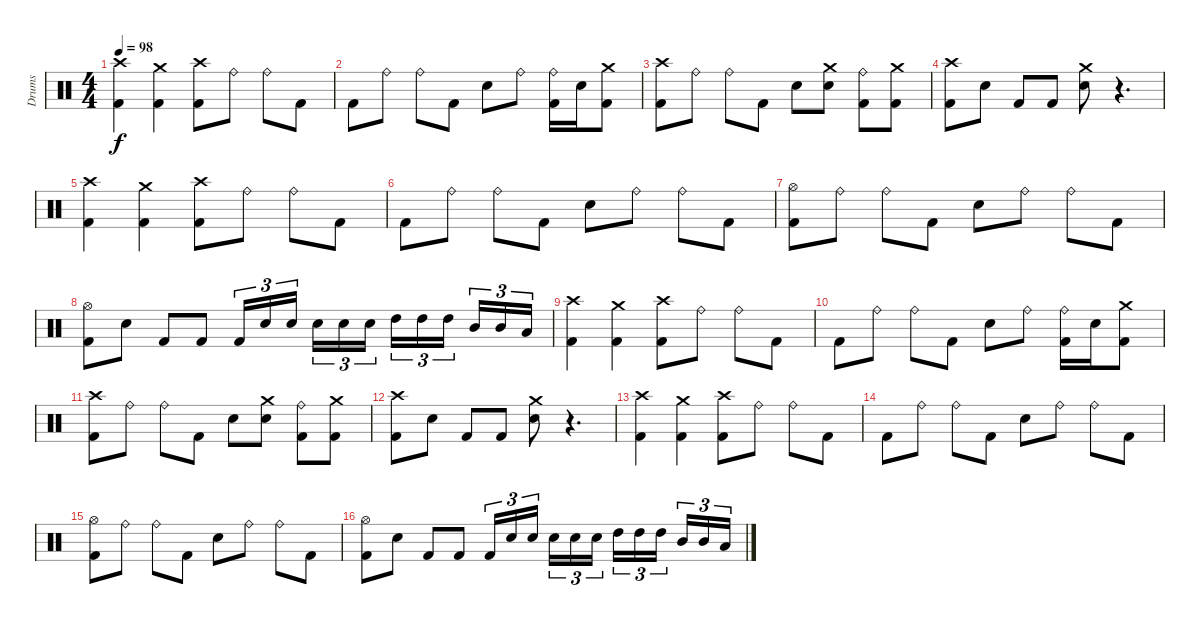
\track ("Drums" "Drums") {instrument percussion}
\staff {score}
\articulation defaults
\ts (4 4)
\tempo 98
\clef neutral
\ks c
("Kick (hit) 2" "Crash high (hit)").4{dy f} ("Kick (hit) 2" "Crash medium (hit)").4 ("Kick (hit) 2" "Crash high (hit)").8 "Ride (bell)".8 "Ride (bell)".8 "Kick (hit) 2".8 |
"Kick (hit) 2".8 "Ride (bell)".8 "Ride (bell)".8 "Kick (hit) 2".8 "Snare (hit) 2".8 "Ride (bell)".8 ("Kick (hit) 2" "Ride (bell)").16 "Snare (hit) 2".16 ("Kick (hit) 2" "Crash medium (hit)").8 |
("Kick (hit) 2" "Crash high (hit)").8 "Ride (bell)".8 "Ride (bell)".8 "Kick (hit) 2".8 "Snare (hit) 2".8 ("Snare (hit) 2" "Crash medium (hit)").8 ("Kick (hit) 2" "Ride (bell)").8 ("Kick (hit) 2" "Crash medium (hit)").8 |
("Kick (hit) 2" "Crash high (hit)").8 "Snare (hit) 2".8 "Kick (hit) 2".8 "Kick (hit) 2".8 ("Snare (hit) 2" "Crash medium (hit)").8 r.4{d} |
("Kick (hit) 2" "Crash high (hit)").4 ("Kick (hit) 2" "Crash medium (hit)").4 ("Kick (hit) 2" "Crash high (hit)").8 "Ride (bell)".8 "Ride (bell)".8 "Kick (hit) 2".8 |
"Kick (hit) 2".8 "Ride (bell)".8 "Ride (bell)".8 "Kick (hit) 2".8 "Snare (hit) 2".8 "Ride (bell)".8 "Ride (bell)".8 "Kick (hit) 2".8 |
("Kick (hit) 2" "Hi-Hat (open)").8 "Ride (bell)".8 "Ride (bell)".8 "Kick (hit) 2".8 "Snare (hit) 2".8 "Ride (bell)".8 "Ride (bell)".8 "Kick (hit) 2".8 |
("Kick (hit) 2" "Hi-Hat (open)").8 "Snare (hit) 2".8 "Kick (hit) 2".8 "Kick (hit) 2".8 "Kick (hit) 2".16{tu (3 2)} "Snare (hit) 2".16{tu (3 2)} "Snare (hit) 2".16{tu (3 2)} "Snare (hit) 2".16{tu (3 2)} "Snare (hit) 2".16{tu (3 2)} "Snare (hit) 2".16{tu (3 2)} "High Tom (hit)".16{tu (3 2)} "High Tom (hit)".16{tu (3 2)} "High Tom (hit)".16{tu (3 2)} "Mid Tom (hit)".16{tu (3 2)} "Mid Tom (hit)".16{tu (3 2)} "Low Tom (hit)".16{tu (3 2)} |
("Kick (hit) 2" "Crash high (hit)").4 ("Kick (hit) 2" "Crash medium (hit)").4 ("Kick (hit) 2" "Crash high (hit)").8 "Ride (bell)".8 "Ride (bell)".8 "Kick (hit) 2".8 |
"Kick (hit) 2".8 "Ride (bell)".8 "Ride (bell)".8 "Kick (hit) 2".8 "Snare (hit) 2".8 "Ride (bell)".8 ("Kick (hit) 2" "Ride (bell)").16 "Snare (hit) 2".16 ("Kick (hit) 2" "Crash medium (hit)").8 |
("Kick (hit) 2" "Crash high (hit)").8 "Ride (bell)".8 "Ride (bell)".8 "Kick (hit) 2".8 "Snare (hit) 2".8 ("Snare (hit) 2" "Crash medium (hit)").8 ("Kick (hit) 2" "Ride (bell)").8 ("Kick (hit) 2" "Crash medium (hit)").8 |
("Kick (hit) 2" "Crash high (hit)").8 "Snare (hit) 2".8 "Kick (hit) 2".8 "Kick (hit) 2".8 ("Snare (hit) 2" "Crash medium (hit)").8 r.4{d} |
("Kick (hit) 2" "Crash high (hit)").4 ("Kick (hit) 2" "Crash medium (hit)").4 ("Kick (hit) 2" "Crash high (hit)").8 "Ride (bell)".8 "Ride (bell)".8 "Kick (hit) 2".8 |
"Kick (hit) 2".8 "Ride (bell)".8 "Ride (bell)".8 "Kick (hit) 2".8 "Snare (hit) 2".8 "Ride (bell)".8 "Ride (bell)".8 "Kick (hit) 2".8 |
("Kick (hit) 2" "Hi-Hat (open)").8 "Ride (bell)".8 "Ride (bell)".8 "Kick (hit) 2".8 "Snare (hit) 2".8 "Ride (bell)".8 "Ride (bell)".8 "Kick (hit) 2".8 |
("Kick (hit) 2" "Hi-Hat (open)").8 "Snare (hit) 2".8 "Kick (hit) 2".8 "Kick (hit) 2".8 "Kick (hit) 2".16{tu (3 2)} "Snare (hit) 2".16{tu (3 2)} "Snare (hit) 2".16{tu (3 2)} "Snare (hit) 2".16{tu (3 2)} "Snare (hit) 2".16{tu (3 2)} "Snare (hit) 2".16{tu (3 2)} "High Tom (hit)".16{tu (3 2)} "High Tom (hit)".16{tu (3 2)} "High Tom (hit)".16{tu (3 2)} "Mid Tom (hit)".16{tu (3 2)} "Mid Tom (hit)".16{tu (3 2)} "Low Tom (hit)".16{tu (3 2)}
